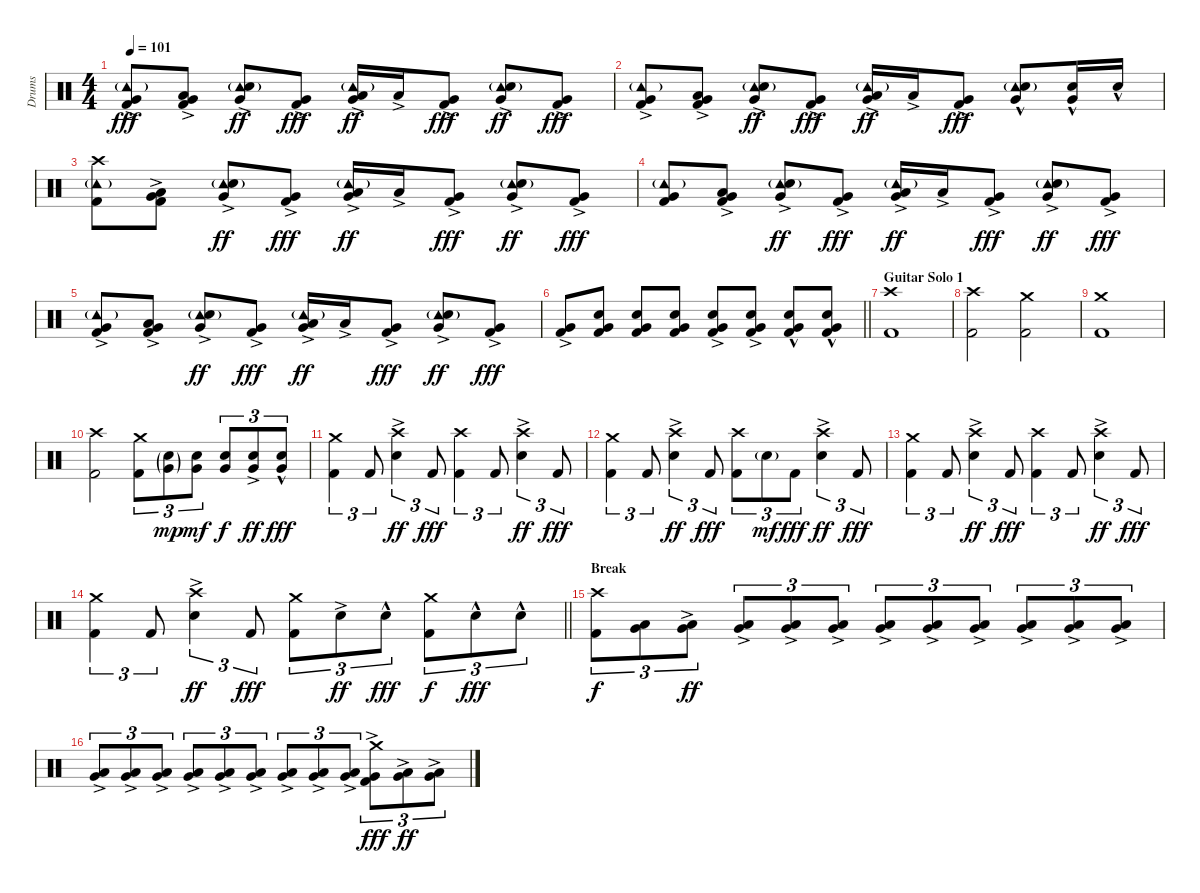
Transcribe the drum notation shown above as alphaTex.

\track ("Drums" "Drums") {instrument percussion}
\staff {score}
\articulation defaults
\ts (4 4)
\tempo 101
\clef neutral
\ks c
("Tambourine (hit)"{g} "Very Low Tom (hit)"{ac} "Kick (hit) 2").8{dy fff} ("Low Tom (hit)"{ac} "Very Low Tom (hit)"{ac} "Kick (hit) 2").8 ("Tambourine (hit)"{g} "Snare (hit) 2"{ac} "Very Low Tom (hit)"{ac}).8{dy ff} ("Very Low Tom (hit)"{ac} "Kick (hit) 2").8{dy fff} ("Tambourine (hit)"{g} "Low Tom (hit)"{ac} "Very Low Tom (hit)"{ac}).16{dy ff} "Low Tom (hit)"{ac}.16 ("Very Low Tom (hit)"{ac} "Kick (hit) 2").8{dy fff} ("Tambourine (hit)"{g} "Snare (hit) 2"{ac} "Very Low Tom (hit)"{ac}).8{dy ff} ("Very Low Tom (hit)"{ac} "Kick (hit) 2").8{dy fff} |
("Tambourine (hit)"{g} "Very Low Tom (hit)"{ac} "Kick (hit) 2").8 ("Low Tom (hit)"{ac} "Very Low Tom (hit)"{ac} "Kick (hit) 2").8 ("Tambourine (hit)"{g} "Snare (hit) 2"{ac} "Very Low Tom (hit)"{ac}).8{dy ff} ("Very Low Tom (hit)"{ac} "Kick (hit) 2").8{dy fff} ("Tambourine (hit)"{g} "Low Tom (hit)"{ac} "Very Low Tom (hit)"{ac}).16{dy ff} "Low Tom (hit)"{ac}.16 ("Very Low Tom (hit)"{ac} "Kick (hit) 2").8{dy fff} ("Tambourine (hit)"{g} "Snare (hit) 2"{hac} "Very Low Tom (hit)"{hac}).8 ("Snare (hit) 2"{hac} "Very Low Tom (hit)"{hac}).16 "Snare (hit) 2"{hac}.16 |
("Crash high (hit)" "Tambourine (hit)"{g} "Kick (hit) 2").8 ("Low Tom (hit)" "Very Low Tom (hit)"{ac} "Kick (hit) 2").8 ("Tambourine (hit)"{g} "Snare (hit) 2"{ac} "Very Low Tom (hit)"{ac}).8{dy ff} ("Very Low Tom (hit)"{ac} "Kick (hit) 2").8{dy fff} ("Tambourine (hit)"{g} "Low Tom (hit)"{ac} "Very Low Tom (hit)"{ac}).16{dy ff} "Low Tom (hit)"{ac}.16 ("Very Low Tom (hit)"{ac} "Kick (hit) 2").8{dy fff} ("Tambourine (hit)"{g} "Snare (hit) 2"{ac} "Very Low Tom (hit)"{ac}).8{dy ff} ("Very Low Tom (hit)"{ac} "Kick (hit) 2").8{dy fff} |
("Tambourine (hit)"{g} "Very Low Tom (hit)" "Kick (hit) 2").8 ("Low Tom (hit)"{ac} "Very Low Tom (hit)"{ac} "Kick (hit) 2").8 ("Tambourine (hit)"{g} "Snare (hit) 2"{ac} "Very Low Tom (hit)"{ac}).8{dy ff} ("Very Low Tom (hit)"{ac} "Kick (hit) 2").8{dy fff} ("Tambourine (hit)"{g} "Low Tom (hit)"{ac} "Very Low Tom (hit)"{ac}).16{dy ff} "Low Tom (hit)"{ac}.16 ("Very Low Tom (hit)"{ac} "Kick (hit) 2").8{dy fff} ("Tambourine (hit)"{g} "Snare (hit) 2"{ac} "Very Low Tom (hit)"{ac}).8{dy ff} ("Very Low Tom (hit)"{ac} "Kick (hit) 2").8{dy fff} |
("Tambourine (hit)"{g} "Very Low Tom (hit)"{ac} "Kick (hit) 2").8 ("Low Tom (hit)"{ac} "Very Low Tom (hit)"{ac} "Kick (hit) 2").8 ("Tambourine (hit)"{g} "Snare (hit) 2"{ac} "Very Low Tom (hit)"{ac}).8{dy ff} ("Very Low Tom (hit)"{ac} "Kick (hit) 2").8{dy fff} ("Tambourine (hit)"{g} "Low Tom (hit)"{ac} "Very Low Tom (hit)"{ac}).16{dy ff} "Low Tom (hit)"{ac}.16 ("Very Low Tom (hit)"{ac} "Kick (hit) 2").8{dy fff} ("Tambourine (hit)"{g} "Snare (hit) 2"{ac} "Very Low Tom (hit)"{ac}).8{dy ff} ("Very Low Tom (hit)"{ac} "Kick (hit) 2").8{dy fff} |
\barLineRight lightlight
("Very Low Tom (hit)"{ac} "Kick (hit) 2").8 ("Snare (hit) 2" "Very Low Tom (hit)" "Kick (hit) 2").8 ("Snare (hit) 2" "Very Low Tom (hit)" "Kick (hit) 2").8 ("Snare (hit) 2" "Very Low Tom (hit)" "Kick (hit) 2").8 ("Snare (hit) 2" "Very Low Tom (hit)"{ac} "Kick (hit) 2").8 ("Snare (hit) 2" "Very Low Tom (hit)"{ac} "Kick (hit) 2").8 ("Snare (hit) 2"{hac} "Very Low Tom (hit)"{hac} "Kick (hit) 2").8 ("Snare (hit) 2"{hac} "Very Low Tom (hit)"{hac} "Kick (hit) 2").8 |
\section ("" "Guitar Solo 1")
("Crash high (hit)" "Kick (hit) 2").1 |
("Crash high (hit)" "Kick (hit) 2").2 ("Crash medium (hit)" "Kick (hit) 2").2 |
("Crash medium (hit)" "Kick (hit) 2").1 |
("Crash high (hit)" "Kick (hit) 2").2 ("Crash medium (hit)" "Kick (hit) 2").8{tu (3 2)} ("Snare (hit) 2"{g} "Very Low Tom (hit)"{g}).8{tu (3 2) dy mp} ("Snare (hit) 2" "Very Low Tom (hit)").8{tu (3 2) dy mf} ("Snare (hit) 2" "Very Low Tom (hit)").8{tu (3 2) dy f} ("Snare (hit) 2"{ac} "Very Low Tom (hit)"{ac}).8{tu (3 2) dy ff} ("Snare (hit) 2"{hac} "Very Low Tom (hit)"{hac}).8{tu (3 2) dy fff} |
("Crash medium (hit)" "Kick (hit) 2").4{tu (3 2)} "Kick (hit) 2".8{tu (3 2)} ("Crash high (hit)" "Snare (hit) 2"{ac}).4{tu (3 2) dy ff} "Kick (hit) 2".8{tu (3 2) dy fff} ("Crash high (hit)" "Kick (hit) 2").4{tu (3 2)} "Kick (hit) 2".8{tu (3 2)} ("Crash high (hit)" "Snare (hit) 2"{ac}).4{tu (3 2) dy ff} "Kick (hit) 2".8{tu (3 2) dy fff} |
("Crash medium (hit)" "Kick (hit) 2").4{tu (3 2)} "Kick (hit) 2".8{tu (3 2)} ("Crash high (hit)" "Snare (hit) 2"{ac}).4{tu (3 2) dy ff} "Kick (hit) 2".8{tu (3 2) dy fff} ("Crash high (hit)" "Kick (hit) 2").8{tu (3 2)} "Snare (hit) 2"{g}.8{tu (3 2) dy mf} "Kick (hit) 2".8{tu (3 2) dy fff} ("Crash high (hit)" "Snare (hit) 2"{ac}).4{tu (3 2) dy ff} "Kick (hit) 2".8{tu (3 2) dy fff} |
("Crash medium (hit)" "Kick (hit) 2").4{tu (3 2)} "Kick (hit) 2".8{tu (3 2)} ("Crash high (hit)" "Snare (hit) 2"{ac}).4{tu (3 2) dy ff} "Kick (hit) 2".8{tu (3 2) dy fff} ("Crash high (hit)" "Kick (hit) 2").4{tu (3 2)} "Kick (hit) 2".8{tu (3 2)} ("Crash high (hit)" "Snare (hit) 2"{ac}).4{tu (3 2) dy ff} "Kick (hit) 2".8{tu (3 2) dy fff} |
\barLineRight lightlight
("Crash medium (hit)" "Kick (hit) 2").4{tu (3 2)} "Kick (hit) 2".8{tu (3 2)} ("Crash high (hit)" "Snare (hit) 2"{ac}).4{tu (3 2) dy ff} "Kick (hit) 2".8{tu (3 2) dy fff} ("Crash medium (hit)" "Kick (hit) 2").8{tu (3 2)} "Snare (hit) 2"{ac}.8{tu (3 2) dy ff} "Snare (hit) 2"{hac}.8{tu (3 2) dy fff} ("Crash medium (hit)" "Kick (hit) 2").8{tu (3 2) dy f} "Snare (hit) 2"{hac}.8{tu (3 2) dy fff} "Snare (hit) 2"{hac}.8{tu (3 2)} |
\section ("" "Break")
("Crash high (hit)" "Kick (hit) 2").8{tu (3 2) dy f} ("Low Tom (hit)" "Very Low Tom (hit)").8{tu (3 2)} ("Low Tom (hit)"{ac} "Very Low Tom (hit)"{ac}).8{tu (3 2) dy ff} ("Low Tom (hit)"{ac} "Very Low Tom (hit)"{ac}).8{tu (3 2)} ("Low Tom (hit)"{ac} "Very Low Tom (hit)"{ac}).8{tu (3 2)} ("Low Tom (hit)"{ac} "Very Low Tom (hit)"{ac}).8{tu (3 2)} ("Low Tom (hit)"{ac} "Very Low Tom (hit)"{ac}).8{tu (3 2)} ("Low Tom (hit)"{ac} "Very Low Tom (hit)"{ac}).8{tu (3 2)} ("Low Tom (hit)"{ac} "Very Low Tom (hit)"{ac}).8{tu (3 2)} ("Low Tom (hit)"{ac} "Very Low Tom (hit)"{ac}).8{tu (3 2)} ("Low Tom (hit)"{ac} "Very Low Tom (hit)"{ac}).8{tu (3 2)} ("Low Tom (hit)"{ac} "Very Low Tom (hit)"{ac}).8{tu (3 2)} |
("Low Tom (hit)"{ac} "Very Low Tom (hit)"{ac}).8{tu (3 2)} ("Low Tom (hit)"{ac} "Very Low Tom (hit)"{ac}).8{tu (3 2)} ("Low Tom (hit)"{ac} "Very Low Tom (hit)"{ac}).8{tu (3 2)} ("Low Tom (hit)"{ac} "Very Low Tom (hit)"{ac}).8{tu (3 2)} ("Low Tom (hit)"{ac} "Very Low Tom (hit)"{ac}).8{tu (3 2)} ("Low Tom (hit)"{ac} "Very Low Tom (hit)"{ac}).8{tu (3 2)} ("Low Tom (hit)"{ac} "Very Low Tom (hit)"{ac}).8{tu (3 2)} ("Low Tom (hit)"{ac} "Very Low Tom (hit)"{ac}).8{tu (3 2)} ("Low Tom (hit)"{ac} "Very Low Tom (hit)"{ac}).8{tu (3 2)} ("Crash medium (hit)" "Very Low Tom (hit)"{ac} "Kick (hit) 2").8{tu (3 2) dy fff} ("Low Tom (hit)"{ac} "Very Low Tom (hit)"{ac}).8{tu (3 2) dy ff} ("Low Tom (hit)"{ac} "Very Low Tom (hit)"{ac}).8{tu (3 2)}
